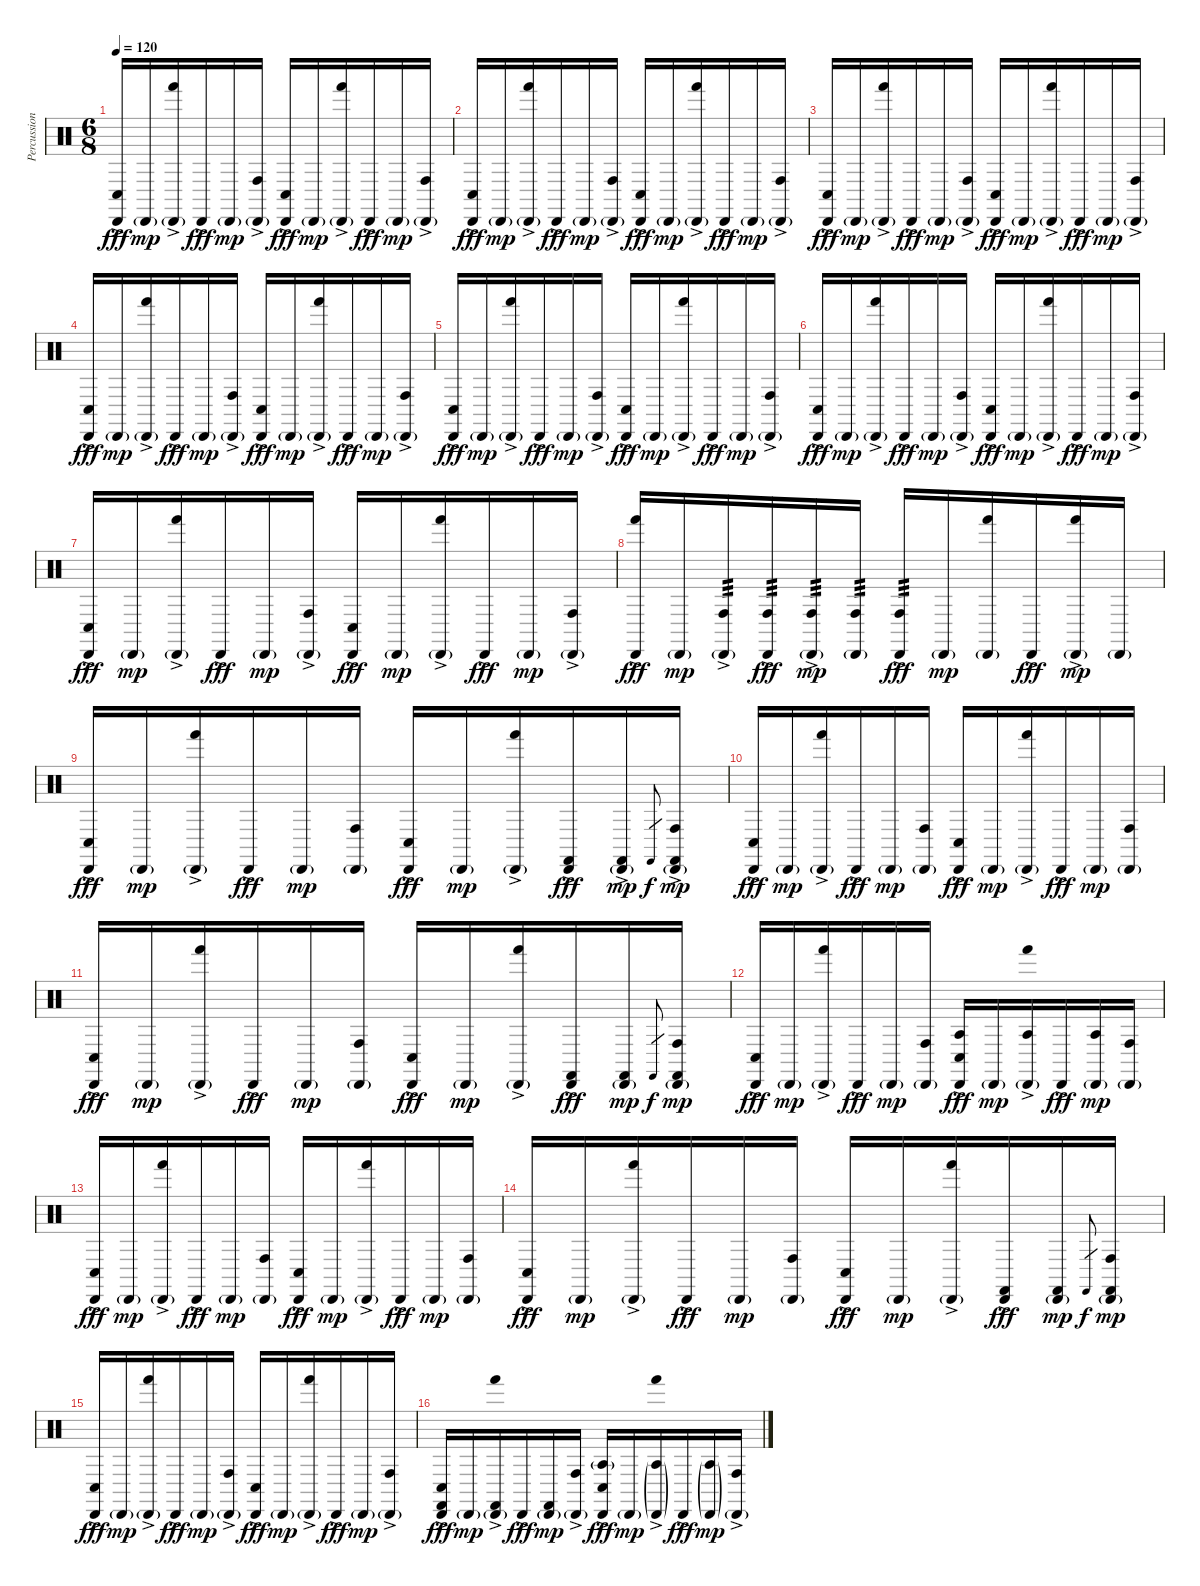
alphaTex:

\track ("Percussion" "Percussion") {instrument percussion}
\staff {score}
\articulation defaults
\ts (6 8)
\tempo 120
\clef neutral
\ks c
("Conga low (hit)"{ac} "Cabasa (hit)"{ac}).16{dy fff} "Cabasa (hit)"{g}.16{dy mp} ("Hand (hit)"{ac} "Cabasa (hit)"{g}).16 "Cabasa (hit)"{ac}.16{dy fff} "Cabasa (hit)"{g}.16{dy mp} ("Conga high (hit)"{ac} "Cabasa (hit)"{g}).16 ("Conga low (hit)"{ac} "Cabasa (hit)"{ac}).16{dy fff} "Cabasa (hit)"{g}.16{dy mp} ("Hand (hit)"{ac} "Cabasa (hit)"{g}).16 "Cabasa (hit)"{ac}.16{dy fff} "Cabasa (hit)"{g}.16{dy mp} ("Conga high (hit)"{ac} "Cabasa (hit)"{g}).16 |
("Conga low (hit)"{ac} "Cabasa (hit)"{ac}).16{dy fff} "Cabasa (hit)"{g}.16{dy mp} ("Hand (hit)"{ac} "Cabasa (hit)"{g}).16 "Cabasa (hit)"{ac}.16{dy fff} "Cabasa (hit)"{g}.16{dy mp} ("Conga high (hit)"{ac} "Cabasa (hit)"{g}).16 ("Conga low (hit)"{ac} "Cabasa (hit)"{ac}).16{dy fff} "Cabasa (hit)"{g}.16{dy mp} ("Hand (hit)"{ac} "Cabasa (hit)"{g}).16 "Cabasa (hit)"{ac}.16{dy fff} "Cabasa (hit)"{g}.16{dy mp} ("Conga high (hit)"{ac} "Cabasa (hit)"{g}).16 |
("Conga low (hit)"{ac} "Cabasa (hit)"{ac}).16{dy fff} "Cabasa (hit)"{g}.16{dy mp} ("Hand (hit)"{ac} "Cabasa (hit)"{g}).16 "Cabasa (hit)"{ac}.16{dy fff} "Cabasa (hit)"{g}.16{dy mp} ("Conga high (hit)"{ac} "Cabasa (hit)"{g}).16 ("Conga low (hit)"{ac} "Cabasa (hit)"{ac}).16{dy fff} "Cabasa (hit)"{g}.16{dy mp} ("Hand (hit)"{ac} "Cabasa (hit)"{g}).16 "Cabasa (hit)"{ac}.16{dy fff} "Cabasa (hit)"{g}.16{dy mp} ("Conga high (hit)"{ac} "Cabasa (hit)"{g}).16 |
("Conga low (hit)"{ac} "Cabasa (hit)"{ac}).16{dy fff} "Cabasa (hit)"{g}.16{dy mp} ("Hand (hit)"{ac} "Cabasa (hit)"{g}).16 "Cabasa (hit)"{ac}.16{dy fff} "Cabasa (hit)"{g}.16{dy mp} ("Conga high (hit)"{ac} "Cabasa (hit)"{g}).16 ("Conga low (hit)"{ac} "Cabasa (hit)"{ac}).16{dy fff} "Cabasa (hit)"{g}.16{dy mp} ("Hand (hit)"{ac} "Cabasa (hit)"{g}).16 "Cabasa (hit)"{ac}.16{dy fff} "Cabasa (hit)"{g}.16{dy mp} ("Conga high (hit)"{ac} "Cabasa (hit)"{g}).16 |
("Conga low (hit)"{ac} "Cabasa (hit)"{ac}).16{dy fff} "Cabasa (hit)"{g}.16{dy mp} ("Hand (hit)"{ac} "Cabasa (hit)"{g}).16 "Cabasa (hit)"{ac}.16{dy fff} "Cabasa (hit)"{g}.16{dy mp} ("Conga high (hit)"{ac} "Cabasa (hit)"{g}).16 ("Conga low (hit)"{ac} "Cabasa (hit)"{ac}).16{dy fff} "Cabasa (hit)"{g}.16{dy mp} ("Hand (hit)"{ac} "Cabasa (hit)"{g}).16 "Cabasa (hit)"{ac}.16{dy fff} "Cabasa (hit)"{g}.16{dy mp} ("Conga high (hit)"{ac} "Cabasa (hit)"{g}).16 |
("Conga low (hit)"{ac} "Cabasa (hit)"{ac}).16{dy fff} "Cabasa (hit)"{g}.16{dy mp} ("Hand (hit)"{ac} "Cabasa (hit)"{g}).16 "Cabasa (hit)"{ac}.16{dy fff} "Cabasa (hit)"{g}.16{dy mp} ("Conga high (hit)"{ac} "Cabasa (hit)"{g}).16 ("Conga low (hit)"{ac} "Cabasa (hit)"{ac}).16{dy fff} "Cabasa (hit)"{g}.16{dy mp} ("Hand (hit)"{ac} "Cabasa (hit)"{g}).16 "Cabasa (hit)"{ac}.16{dy fff} "Cabasa (hit)"{g}.16{dy mp} ("Conga high (hit)"{ac} "Cabasa (hit)"{g}).16 |
("Conga low (hit)"{ac} "Cabasa (hit)"{ac}).16{dy fff} "Cabasa (hit)"{g}.16{dy mp} ("Hand (hit)"{ac} "Cabasa (hit)"{g}).16 "Cabasa (hit)"{ac}.16{dy fff} "Cabasa (hit)"{g}.16{dy mp} ("Conga high (hit)"{ac} "Cabasa (hit)"{g}).16 ("Conga low (hit)"{ac} "Cabasa (hit)"{ac}).16{dy fff} "Cabasa (hit)"{g}.16{dy mp} ("Hand (hit)"{ac} "Cabasa (hit)"{g}).16 "Cabasa (hit)"{ac}.16{dy fff} "Cabasa (hit)"{g}.16{dy mp} ("Conga high (hit)"{ac} "Cabasa (hit)"{g}).16 |
("Hand (hit)"{ac} "Cabasa (hit)"{ac}).16{dy fff} "Cabasa (hit)"{g}.16{dy mp} ("Conga high (hit)"{ac} "Cabasa (hit)"{g}).16{tp 3} ("Conga high (hit)" "Cabasa (hit)"{ac}).16{tp 3 dy fff} ("Conga high (hit)"{ac} "Cabasa (hit)"{g}).16{tp 3 dy mp} ("Conga high (hit)" "Cabasa (hit)"{g}).16{tp 3} ("Conga high (hit)"{ac} "Cabasa (hit)"{ac}).16{tp 3 dy fff} "Cabasa (hit)"{g}.16{dy mp} ("Hand (hit)" "Cabasa (hit)"{g}).16 "Cabasa (hit)"{ac}.16{dy fff} ("Hand (hit)"{ac} "Cabasa (hit)"{g}).16{dy mp} "Cabasa (hit)"{g}.16 |
("Conga low (hit)"{ac} "Cabasa (hit)"{ac}).16{dy fff} "Cabasa (hit)"{g}.16{dy mp} ("Hand (hit)"{ac} "Cabasa (hit)"{g}).16 "Cabasa (hit)"{ac}.16{dy fff} "Cabasa (hit)"{g}.16{dy mp} ("Conga high (hit)" "Cabasa (hit)"{g}).16 ("Conga low (hit)"{ac} "Cabasa (hit)"{ac}).16{dy fff} "Cabasa (hit)"{g}.16{dy mp} ("Hand (hit)"{ac} "Cabasa (hit)"{g}).16 ("Castanets (hit)" "Cabasa (hit)"{ac}).16{dy fff} ("Castanets (hit)"{ac} "Cabasa (hit)"{g}).16{dy mp} "Castanets (hit)".8{gr dy f} ("Castanets (hit)"{ac} "Conga high (hit)" "Cabasa (hit)"{g}).16{dy mp} |
("Conga low (hit)"{ac} "Cabasa (hit)"{ac}).16{dy fff} "Cabasa (hit)"{g}.16{dy mp} ("Hand (hit)"{ac} "Cabasa (hit)"{g}).16 "Cabasa (hit)"{ac}.16{dy fff} "Cabasa (hit)"{g}.16{dy mp} ("Conga high (hit)" "Cabasa (hit)"{g}).16 ("Conga low (hit)"{ac} "Cabasa (hit)"{ac}).16{dy fff} "Cabasa (hit)"{g}.16{dy mp} ("Hand (hit)"{ac} "Cabasa (hit)"{g}).16 "Cabasa (hit)"{ac}.16{dy fff} "Cabasa (hit)"{g}.16{dy mp} ("Conga high (hit)" "Cabasa (hit)"{g}).16 |
("Conga low (hit)"{ac} "Cabasa (hit)"{ac}).16{dy fff} "Cabasa (hit)"{g}.16{dy mp} ("Hand (hit)"{ac} "Cabasa (hit)"{g}).16 "Cabasa (hit)"{ac}.16{dy fff} "Cabasa (hit)"{g}.16{dy mp} ("Conga high (hit)" "Cabasa (hit)"{g}).16 ("Conga low (hit)"{ac} "Cabasa (hit)"{ac}).16{dy fff} "Cabasa (hit)"{g}.16{dy mp} ("Hand (hit)"{ac} "Cabasa (hit)"{g}).16 ("Castanets (hit)" "Cabasa (hit)"{ac}).16{dy fff} ("Castanets (hit)" "Cabasa (hit)"{g}).16{dy mp} "Castanets (hit)".8{gr dy f} ("Castanets (hit)" "Conga high (hit)" "Cabasa (hit)"{g}).16{dy mp} |
("Conga low (hit)"{ac} "Cabasa (hit)"{ac}).16{dy fff} "Cabasa (hit)"{g}.16{dy mp} ("Hand (hit)"{ac} "Cabasa (hit)"{g}).16 "Cabasa (hit)"{ac}.16{dy fff} "Cabasa (hit)"{g}.16{dy mp} ("Conga high (hit)" "Cabasa (hit)"{g}).16 ("Agogo tow (hit)" "Conga low (hit)"{ac} "Cabasa (hit)"{ac}).16{dy fff} "Cabasa (hit)"{g}.16{dy mp} ("Agogo tow (hit)" "Hand (hit)"{ac} "Cabasa (hit)"{g}).16 "Cabasa (hit)"{ac}.16{dy fff} ("Agogo tow (hit)" "Cabasa (hit)"{g}).16{dy mp} ("Conga high (hit)" "Cabasa (hit)"{g}).16 |
("Conga low (hit)"{ac} "Cabasa (hit)"{ac}).16{dy fff} "Cabasa (hit)"{g}.16{dy mp} ("Hand (hit)"{ac} "Cabasa (hit)"{g}).16 "Cabasa (hit)"{ac}.16{dy fff} "Cabasa (hit)"{g}.16{dy mp} ("Conga high (hit)" "Cabasa (hit)"{g}).16 ("Conga low (hit)"{ac} "Cabasa (hit)"{ac}).16{dy fff} "Cabasa (hit)"{g}.16{dy mp} ("Hand (hit)"{ac} "Cabasa (hit)"{g}).16 "Cabasa (hit)"{ac}.16{dy fff} "Cabasa (hit)"{g}.16{dy mp} ("Conga high (hit)" "Cabasa (hit)"{g}).16 |
("Conga low (hit)"{ac} "Cabasa (hit)"{ac}).16{dy fff} "Cabasa (hit)"{g}.16{dy mp} ("Hand (hit)"{ac} "Cabasa (hit)"{g}).16 "Cabasa (hit)"{ac}.16{dy fff} "Cabasa (hit)"{g}.16{dy mp} ("Conga high (hit)" "Cabasa (hit)"{g}).16 ("Conga low (hit)"{ac} "Cabasa (hit)"{ac}).16{dy fff} "Cabasa (hit)"{g}.16{dy mp} ("Hand (hit)"{ac} "Cabasa (hit)"{g}).16 ("Castanets (hit)"{ac} "Cabasa (hit)"{ac}).16{dy fff} ("Castanets (hit)" "Cabasa (hit)"{g}).16{dy mp} "Castanets (hit)".8{gr dy f} ("Castanets (hit)" "Conga high (hit)" "Cabasa (hit)"{g}).16{dy mp} |
("Conga low (hit)"{ac} "Cabasa (hit)"{ac}).16{dy fff} "Cabasa (hit)"{g}.16{dy mp} ("Hand (hit)"{ac} "Cabasa (hit)"{g}).16 "Cabasa (hit)"{ac}.16{dy fff} "Cabasa (hit)"{g}.16{dy mp} ("Conga high (hit)"{ac} "Cabasa (hit)"{g}).16 ("Conga low (hit)"{ac} "Cabasa (hit)"{ac}).16{dy fff} "Cabasa (hit)"{g}.16{dy mp} ("Hand (hit)"{ac} "Cabasa (hit)"{g}).16 "Cabasa (hit)"{ac}.16{dy fff} "Cabasa (hit)"{g}.16{dy mp} ("Conga high (hit)"{ac} "Cabasa (hit)"{g}).16 |
("Castanets (hit)" "Conga low (hit)"{ac} "Cabasa (hit)"{ac}).16{dy fff} "Cabasa (hit)"{g}.16{dy mp} ("Castanets (hit)" "Hand (hit)"{ac} "Cabasa (hit)"{g}).16 "Cabasa (hit)"{ac}.16{dy fff} ("Castanets (hit)" "Cabasa (hit)"{g}).16{dy mp} ("Conga high (hit)"{ac} "Cabasa (hit)"{g}).16 ("Agogo tow (hit)"{g} "Conga low (hit)"{ac} "Cabasa (hit)"{ac}).16{dy fff} "Cabasa (hit)"{g}.16{dy mp} ("Agogo tow (hit)"{g} "Hand (hit)"{ac} "Cabasa (hit)"{g}).16 "Cabasa (hit)"{ac}.16{dy fff} ("Agogo tow (hit)"{g} "Cabasa (hit)"{g}).16{dy mp} ("Conga high (hit)"{ac} "Cabasa (hit)"{g}).16
